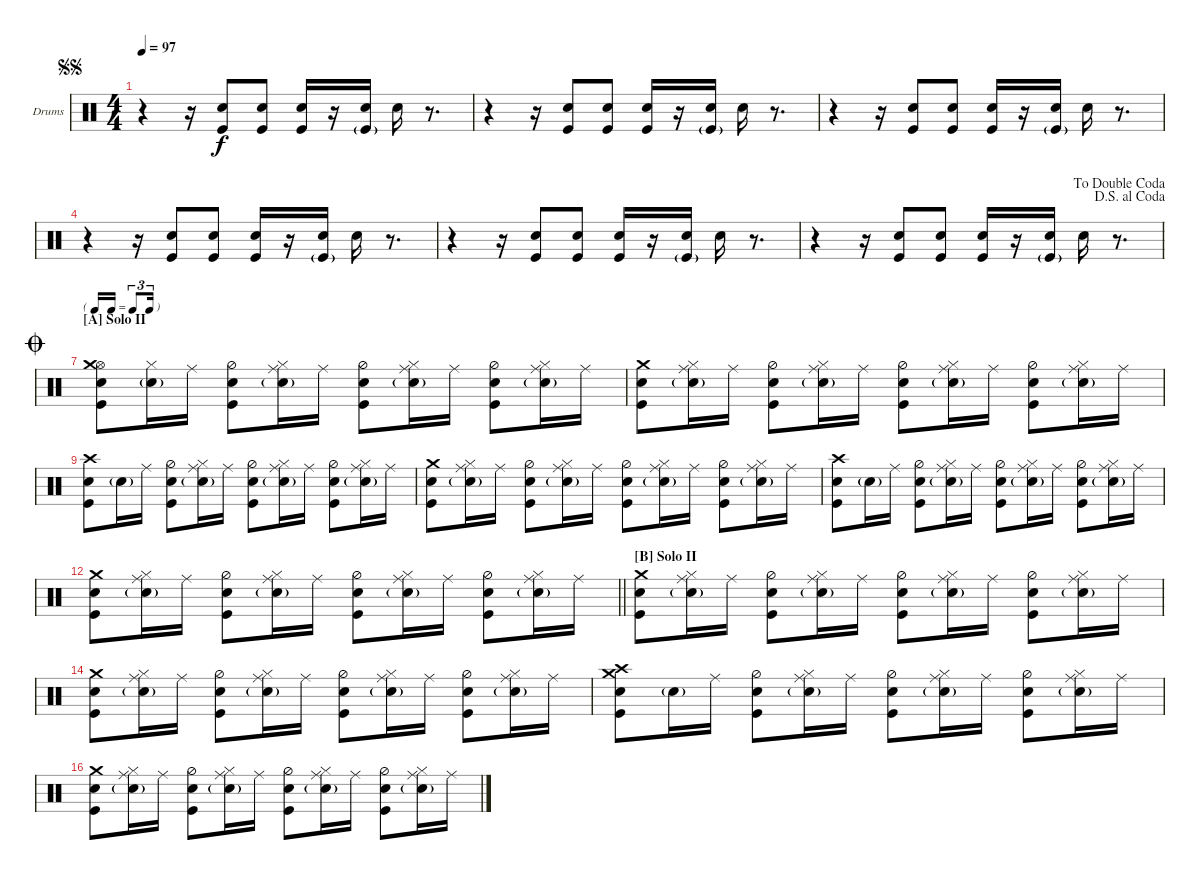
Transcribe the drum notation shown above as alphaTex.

\defaultSystemsLayout 4
\bracketExtendMode nobrackets
\firstSystemTrackNameOrientation horizontal
\otherSystemsTrackNameOrientation horizontal
\defaultBarNumberDisplay FirstOfSystem
\track ("Drums" "Drums") {instrument percussion}
\staff {score}
\articulation defaults
\ts (4 4)
\jump segnosegno
\tempo 97
\clef neutral
\scale
0.333333
\ks c
r.4{dy f} r.16 ("Snare (hit) 2" "Kick (hit)").8 ("Snare (hit) 2" "Kick (hit)").8 ("Kick (hit)" "Snare (hit) 2").16 r.16 ("Snare (hit) 2" "Kick (hit)"{g}).16 "Snare (hit) 2".16 r.8{d} |
\scale
0.333333 r.4 r.16 ("Snare (hit) 2" "Kick (hit)").8 ("Snare (hit) 2" "Kick (hit)").8 ("Kick (hit)" "Snare (hit) 2").16 r.16 ("Snare (hit) 2" "Kick (hit)"{g}).16 "Snare (hit) 2".16 r.8{d} |
\scale
0.333333 r.4 r.16 ("Snare (hit) 2" "Kick (hit)").8 ("Snare (hit) 2" "Kick (hit)").8 ("Kick (hit)" "Snare (hit) 2").16 r.16 ("Snare (hit) 2" "Kick (hit)"{g}).16 "Snare (hit) 2".16 r.8{d} |
\scale
0.287915 r.4 r.16 ("Snare (hit) 2" "Kick (hit)").8 ("Snare (hit) 2" "Kick (hit)").8 ("Kick (hit)" "Snare (hit) 2").16 r.16 ("Snare (hit) 2" "Kick (hit)"{g}).16 "Snare (hit) 2".16 r.8{d} |
\scale
0.393659 r.4 r.16 ("Snare (hit) 2" "Kick (hit)").8 ("Snare (hit) 2" "Kick (hit)").8 ("Kick (hit)" "Snare (hit) 2").16 r.16 ("Snare (hit) 2" "Kick (hit)"{g}).16 "Snare (hit) 2".16 r.8{d} |
\scale
0.318452
\jump dalsegnoalcoda
\jump dadoublecoda
r.4 r.16 ("Snare (hit) 2" "Kick (hit)").8 ("Snare (hit) 2" "Kick (hit)").8 ("Kick (hit)" "Snare (hit) 2").16 r.16 ("Snare (hit) 2" "Kick (hit)"{g}).16 "Snare (hit) 2".16 r.8{d} |
\tf triplet16th
\section ("A" "Solo II")
\jump coda
("Snare (hit) 2" "Kick (hit)" "Hi-Hat (open)" "Crash medium (hit)").8 ("Snare (hit) 2"{g} "Hi-Hat (closed)").16 "Ride (middle)".16 ("Snare (hit) 2" "Kick (hit)" "Hi-Hat (half)").8 ("Hi-Hat (closed)" "Snare (hit) 2"{g} "Ride (middle)").16 "Ride (middle)".16 ("Kick (hit)" "Snare (hit) 2" "Hi-Hat (half)").8 ("Hi-Hat (closed)" "Snare (hit) 2"{g} "Ride (middle)").16 "Ride (middle)".16 ("Snare (hit) 2" "Kick (hit)" "Hi-Hat (half)").8 ("Hi-Hat (closed)" "Snare (hit) 2"{g} "Ride (middle)").16 "Ride (middle)".16 |
("Snare (hit) 2" "Kick (hit)" "Crash medium (hit)").8 ("Snare (hit) 2"{g} "Hi-Hat (closed)" "Ride (middle)").16 "Ride (middle)".16 ("Snare (hit) 2" "Kick (hit)" "Hi-Hat (half)").8 ("Hi-Hat (closed)" "Snare (hit) 2"{g} "Ride (middle)").16 "Ride (middle)".16 ("Kick (hit)" "Snare (hit) 2" "Hi-Hat (half)").8 ("Hi-Hat (closed)" "Snare (hit) 2"{g} "Ride (middle)").16 "Ride (middle)".16 ("Snare (hit) 2" "Kick (hit)" "Hi-Hat (half)").8 ("Hi-Hat (closed)" "Snare (hit) 2"{g} "Ride (middle)").16 "Ride (middle)".16 |
("Snare (hit) 2" "Kick (hit)" "Crash high (hit)").8 "Snare (hit) 2"{g}.16 "Ride (middle)".16 ("Snare (hit) 2" "Kick (hit)" "Hi-Hat (half)").8 ("Hi-Hat (closed)" "Snare (hit) 2"{g} "Ride (middle)").16 "Ride (middle)".16 ("Kick (hit)" "Snare (hit) 2" "Hi-Hat (half)").8 ("Hi-Hat (closed)" "Snare (hit) 2"{g} "Ride (middle)").16 "Ride (middle)".16 ("Snare (hit) 2" "Kick (hit)" "Hi-Hat (half)").8 ("Hi-Hat (closed)" "Snare (hit) 2"{g} "Ride (middle)").16 "Ride (middle)".16 |
("Snare (hit) 2" "Kick (hit)" "Crash medium (hit)").8 ("Snare (hit) 2"{g} "Hi-Hat (closed)" "Ride (middle)").16 "Ride (middle)".16 ("Snare (hit) 2" "Kick (hit)" "Hi-Hat (half)").8 ("Hi-Hat (closed)" "Snare (hit) 2"{g} "Ride (middle)").16 "Ride (middle)".16 ("Kick (hit)" "Snare (hit) 2" "Hi-Hat (half)").8 ("Hi-Hat (closed)" "Snare (hit) 2"{g} "Ride (middle)").16 "Ride (middle)".16 ("Snare (hit) 2" "Kick (hit)" "Hi-Hat (half)").8 ("Hi-Hat (closed)" "Snare (hit) 2"{g} "Ride (middle)").16 "Ride (middle)".16 |
("Snare (hit) 2" "Kick (hit)" "Crash high (hit)").8 "Snare (hit) 2"{g}.16 "Ride (middle)".16 ("Snare (hit) 2" "Kick (hit)" "Hi-Hat (half)").8 ("Hi-Hat (closed)" "Snare (hit) 2"{g} "Ride (middle)").16 "Ride (middle)".16 ("Kick (hit)" "Snare (hit) 2" "Hi-Hat (half)").8 ("Hi-Hat (closed)" "Snare (hit) 2"{g} "Ride (middle)").16 "Ride (middle)".16 ("Snare (hit) 2" "Kick (hit)" "Hi-Hat (half)").8 ("Hi-Hat (closed)" "Snare (hit) 2"{g} "Ride (middle)").16 "Ride (middle)".16 |
\barLineRight lightlight
("Snare (hit) 2" "Kick (hit)" "Crash medium (hit)").8 ("Snare (hit) 2"{g} "Hi-Hat (closed)" "Ride (middle)").16 "Ride (middle)".16 ("Snare (hit) 2" "Kick (hit)" "Hi-Hat (half)").8 ("Hi-Hat (closed)" "Snare (hit) 2"{g} "Ride (middle)").16 "Ride (middle)".16 ("Kick (hit)" "Snare (hit) 2" "Hi-Hat (half)").8 ("Hi-Hat (closed)" "Snare (hit) 2"{g} "Ride (middle)").16 "Ride (middle)".16 ("Snare (hit) 2" "Kick (hit)" "Hi-Hat (half)").8 ("Hi-Hat (closed)" "Snare (hit) 2"{g} "Ride (middle)").16 "Ride (middle)".16 |
\section ("B" "Solo II")
("Snare (hit) 2" "Kick (hit)" "Crash medium (hit)").8 ("Snare (hit) 2"{g} "Hi-Hat (closed)" "Ride (middle)").16 "Ride (middle)".16 ("Snare (hit) 2" "Kick (hit)" "Hi-Hat (half)").8 ("Hi-Hat (closed)" "Snare (hit) 2"{g} "Ride (middle)").16 "Ride (middle)".16 ("Kick (hit)" "Snare (hit) 2" "Hi-Hat (half)").8 ("Hi-Hat (closed)" "Snare (hit) 2"{g} "Ride (middle)").16 "Ride (middle)".16 ("Snare (hit) 2" "Kick (hit)" "Hi-Hat (half)").8 ("Hi-Hat (closed)" "Snare (hit) 2"{g} "Ride (middle)").16 "Ride (middle)".16 |
("Snare (hit) 2" "Kick (hit)" "Crash medium (hit)").8 ("Snare (hit) 2"{g} "Hi-Hat (closed)" "Ride (middle)").16 "Ride (middle)".16 ("Snare (hit) 2" "Kick (hit)" "Hi-Hat (half)").8 ("Hi-Hat (closed)" "Snare (hit) 2"{g} "Ride (middle)").16 "Ride (middle)".16 ("Kick (hit)" "Snare (hit) 2" "Hi-Hat (half)").8 ("Hi-Hat (closed)" "Snare (hit) 2"{g} "Ride (middle)").16 "Ride (middle)".16 ("Snare (hit) 2" "Kick (hit)" "Hi-Hat (half)").8 ("Hi-Hat (closed)" "Snare (hit) 2"{g} "Ride (middle)").16 "Ride (middle)".16 |
("Snare (hit) 2" "Kick (hit)" "Crash medium (hit)" "Crash high (hit)").8 "Snare (hit) 2"{g}.16 "Ride (middle)".16 ("Snare (hit) 2" "Kick (hit)" "Hi-Hat (half)").8 ("Hi-Hat (closed)" "Snare (hit) 2"{g} "Ride (middle)").16 "Ride (middle)".16 ("Kick (hit)" "Snare (hit) 2" "Hi-Hat (half)").8 ("Hi-Hat (closed)" "Snare (hit) 2"{g} "Ride (middle)").16 "Ride (middle)".16 ("Snare (hit) 2" "Kick (hit)" "Hi-Hat (half)").8 ("Hi-Hat (closed)" "Snare (hit) 2"{g} "Ride (middle)").16 "Ride (middle)".16 |
("Snare (hit) 2" "Kick (hit)" "Crash medium (hit)").8 ("Snare (hit) 2"{g} "Hi-Hat (closed)" "Ride (middle)").16 "Ride (middle)".16 ("Snare (hit) 2" "Kick (hit)" "Hi-Hat (half)").8 ("Hi-Hat (closed)" "Snare (hit) 2"{g} "Ride (middle)").16 "Ride (middle)".16 ("Kick (hit)" "Snare (hit) 2" "Hi-Hat (half)").8 ("Hi-Hat (closed)" "Snare (hit) 2"{g} "Ride (middle)").16 "Ride (middle)".16 ("Snare (hit) 2" "Kick (hit)" "Hi-Hat (half)").8 ("Hi-Hat (closed)" "Snare (hit) 2"{g} "Ride (middle)").16 "Ride (middle)".16
